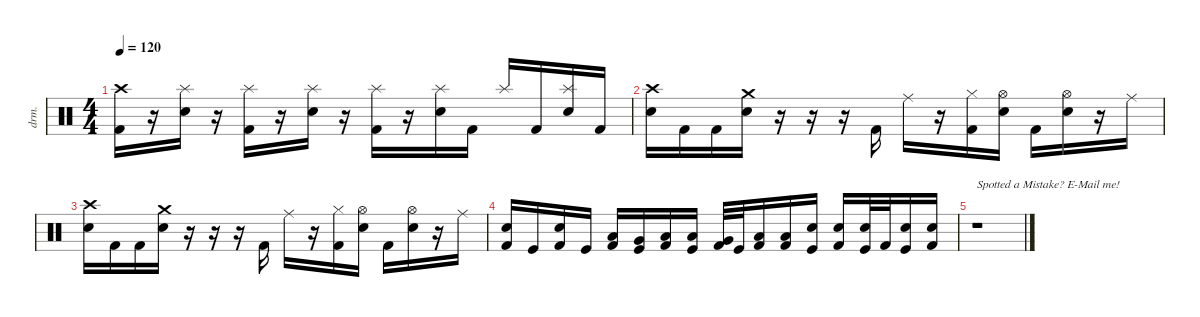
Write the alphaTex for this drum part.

\defaultSystemsLayout 4
\hideDynamics
\bracketExtendMode nobrackets
\track ("Drums" "drm.") {instrument percussion}
\staff {score}
\articulation defaults
\ts (4 4)
\tempo 120
\clef neutral
\ks c
("Crash high (hit)" "Kick (hit) 2").16{dy fff beam Down} r.16{beam Down} ("Splash (hit)" "Snare (hit) 2").16{beam Down} r.16{beam Down} ("Splash (hit)" "Kick (hit) 2").16{beam Down} r.16{beam Down} ("Splash (hit)" "Snare (hit) 2").16{beam Down} r.16{beam Down} ("Splash (hit)" "Kick (hit) 2").16{beam Down} r.16{beam Down} ("Splash (hit)" "Snare (hit) 2").16{beam Down} "Kick (hit) 2".16{dy f beam Down} "Splash (hit)".16{dy fff beam Up} "Kick (hit) 2".16{dy f beam Up} ("Splash (hit)" "Snare (hit) 2").16{dy fff beam Up} "Kick (hit) 2".16{dy f beam Up} |
("Crash high (hit)" "Snare (hit) 2").16{dy fff beam Down} "Kick (hit) 2".16{dy f beam Down} "Kick (hit) 2".16{beam Down} ("Crash medium (hit)" "Snare (hit) 2").16{dy fff beam Down} r.16{beam Down} r.16{beam Down} r.16{beam Down} "Kick (hit) 2".16{dy f beam Up} "Ride (middle)".16{dy fff beam Down} r.16{beam Down} ("Hi-Hat (closed)" "Kick (hit) 2").16{beam Down} ("Hi-Hat (open)" "Snare (hit) 2").16{beam Down} "Kick (hit) 2".16{dy f beam Down} ("Hi-Hat (open)" "Snare (hit) 2").16{dy fff beam Down} r.16{beam Down} "Ride (middle)".16{beam Down} |
("Crash high (hit)" "Snare (hit) 2").16{beam Down} "Kick (hit) 2".16{dy f beam Down} "Kick (hit) 2".16{beam Down} ("Crash medium (hit)" "Snare (hit) 2").16{dy fff beam Down} r.16{beam Down} r.16{beam Down} r.16{beam Down} "Kick (hit) 2".16{dy f beam Up} "Ride (middle)".16{dy fff beam Down} r.16{beam Down} ("Hi-Hat (closed)" "Kick (hit) 2").16{beam Down} ("Hi-Hat (open)" "Snare (hit) 2").16{beam Down} "Kick (hit) 2".16{dy f beam Down} ("Hi-Hat (open)" "Snare (hit) 2").16{dy fff beam Down} r.16{beam Down} "Ride (middle)".16{beam Down} |
("Snare (hit) 2" "Kick (hit) 2").16{dy f beam Up} "Kick (hit)".16{beam Up} ("Snare (hit) 2" "Kick (hit) 2").16{beam Up} "Kick (hit)".16{beam Up} ("Low Tom (hit)" "Kick (hit) 2").16{beam Up} ("Very Low Tom (hit)" "Kick (hit)").16{beam Up} ("Low Floor Tom (hit)" "Kick (hit) 2").16{beam Up} ("Low Tom (hit)" "Kick (hit)").16{beam Up} ("Very Low Tom (hit)" "Kick (hit) 2").32{beam Up} "Kick (hit)".32{beam Up} ("Low Floor Tom (hit)" "Kick (hit) 2").16{beam Up} ("Low Tom (hit)" "Kick (hit) 2").16{beam Up} ("Snare (hit) 2" "Kick (hit)").16{beam Up} ("Snare (hit) 2" "Kick (hit) 2").16{beam Up} ("Snare (hit) 2" "Kick (hit)").32{beam Up} "Kick (hit) 2".32{beam Up} ("Snare (hit) 2" "Kick (hit)").16{beam Up} ("Snare (hit) 2" "Kick (hit) 2").16{beam Up} |
r.1{txt "Spotted a Mistake? E-Mail me!" beam Down}
